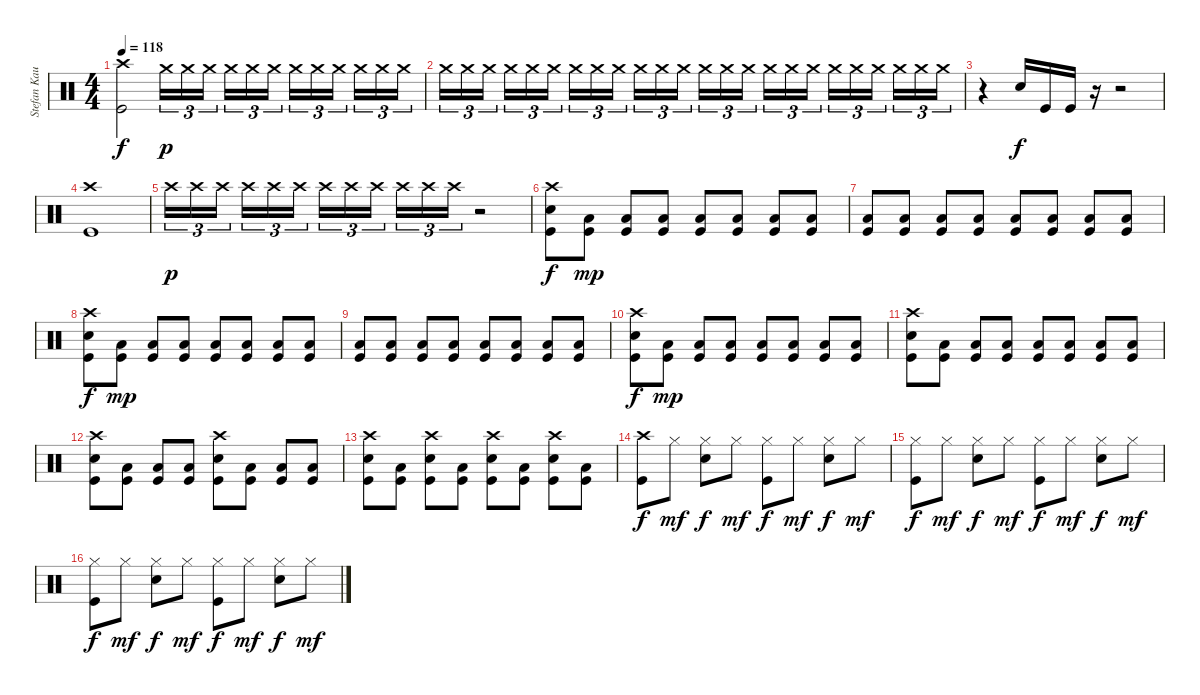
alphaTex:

\track ("Stefan Kaufmann" "Stefan Kau") {instrument percussion}
\staff {score}
\articulation defaults
\ts (4 4)
\tempo 118
\clef neutral
\ks c
("Crash high (hit)" "Kick (hit)").2{dy f} "Crash medium (hit)".16{tu (3 2) dy p} "Crash medium (hit)".16{tu (3 2)} "Crash medium (hit)".16{tu (3 2)} "Crash medium (hit)".16{tu (3 2)} "Crash medium (hit)".16{tu (3 2)} "Crash medium (hit)".16{tu (3 2)} "Crash medium (hit)".16{tu (3 2)} "Crash medium (hit)".16{tu (3 2)} "Crash medium (hit)".16{tu (3 2)} "Crash medium (hit)".16{tu (3 2)} "Crash medium (hit)".16{tu (3 2)} "Crash medium (hit)".16{tu (3 2)} |
"Crash medium (hit)".16{tu (3 2)} "Crash medium (hit)".16{tu (3 2)} "Crash medium (hit)".16{tu (3 2)} "Crash medium (hit)".16{tu (3 2)} "Crash medium (hit)".16{tu (3 2)} "Crash medium (hit)".16{tu (3 2)} "Crash medium (hit)".16{tu (3 2)} "Crash medium (hit)".16{tu (3 2)} "Crash medium (hit)".16{tu (3 2)} "Crash medium (hit)".16{tu (3 2)} "Crash medium (hit)".16{tu (3 2)} "Crash medium (hit)".16{tu (3 2)} "Crash medium (hit)".16{tu (3 2)} "Crash medium (hit)".16{tu (3 2)} "Crash medium (hit)".16{tu (3 2)} "Crash medium (hit)".16{tu (3 2)} "Crash medium (hit)".16{tu (3 2)} "Crash medium (hit)".16{tu (3 2)} "Crash medium (hit)".16{tu (3 2)} "Crash medium (hit)".16{tu (3 2)} "Crash medium (hit)".16{tu (3 2)} "Crash medium (hit)".16{tu (3 2)} "Crash medium (hit)".16{tu (3 2)} "Crash medium (hit)".16{tu (3 2)} |
r.4 "Snare (hit) 2".16{dy f} "Kick (hit)".16 "Kick (hit)".16 r.16 r.2 |
("Crash high (hit)" "Kick (hit)").1 |
"Crash high (hit)".16{tu (3 2) dy p} "Crash high (hit)".16{tu (3 2)} "Crash high (hit)".16{tu (3 2)} "Crash high (hit)".16{tu (3 2)} "Crash high (hit)".16{tu (3 2)} "Crash high (hit)".16{tu (3 2)} "Crash high (hit)".16{tu (3 2)} "Crash high (hit)".16{tu (3 2)} "Crash high (hit)".16{tu (3 2)} "Crash high (hit)".16{tu (3 2)} "Crash high (hit)".16{tu (3 2)} "Crash high (hit)".16{tu (3 2)} r.2 |
("Crash high (hit)" "Snare (hit) 2" "Kick (hit)").8{dy f} ("Low Floor Tom (hit)" "Kick (hit)").8{dy mp} ("Low Floor Tom (hit)" "Kick (hit)").8 ("Low Floor Tom (hit)" "Kick (hit)").8 ("Low Floor Tom (hit)" "Kick (hit)").8 ("Low Floor Tom (hit)" "Kick (hit)").8 ("Low Floor Tom (hit)" "Kick (hit)").8 ("Low Floor Tom (hit)" "Kick (hit)").8 |
("Low Floor Tom (hit)" "Kick (hit)").8 ("Low Floor Tom (hit)" "Kick (hit)").8 ("Low Floor Tom (hit)" "Kick (hit)").8 ("Low Floor Tom (hit)" "Kick (hit)").8 ("Low Floor Tom (hit)" "Kick (hit)").8 ("Low Floor Tom (hit)" "Kick (hit)").8 ("Low Floor Tom (hit)" "Kick (hit)").8 ("Low Floor Tom (hit)" "Kick (hit)").8 |
("Crash high (hit)" "Snare (hit) 2" "Kick (hit)").8{dy f} ("Low Floor Tom (hit)" "Kick (hit)").8{dy mp} ("Low Floor Tom (hit)" "Kick (hit)").8 ("Low Floor Tom (hit)" "Kick (hit)").8 ("Low Floor Tom (hit)" "Kick (hit)").8 ("Low Floor Tom (hit)" "Kick (hit)").8 ("Low Floor Tom (hit)" "Kick (hit)").8 ("Low Floor Tom (hit)" "Kick (hit)").8 |
("Low Floor Tom (hit)" "Kick (hit)").8 ("Low Floor Tom (hit)" "Kick (hit)").8 ("Low Floor Tom (hit)" "Kick (hit)").8 ("Low Floor Tom (hit)" "Kick (hit)").8 ("Low Floor Tom (hit)" "Kick (hit)").8 ("Low Floor Tom (hit)" "Kick (hit)").8 ("Low Floor Tom (hit)" "Kick (hit)").8 ("Low Floor Tom (hit)" "Kick (hit)").8 |
("Crash high (hit)" "Snare (hit) 2" "Kick (hit)").8{dy f} ("Low Floor Tom (hit)" "Kick (hit)").8{dy mp} ("Low Floor Tom (hit)" "Kick (hit)").8 ("Low Floor Tom (hit)" "Kick (hit)").8 ("Low Floor Tom (hit)" "Kick (hit)").8 ("Low Floor Tom (hit)" "Kick (hit)").8 ("Low Floor Tom (hit)" "Kick (hit)").8 ("Low Floor Tom (hit)" "Kick (hit)").8 |
("Crash high (hit)" "Snare (hit) 2" "Kick (hit)").8 ("Low Floor Tom (hit)" "Kick (hit)").8 ("Low Floor Tom (hit)" "Kick (hit)").8 ("Low Floor Tom (hit)" "Kick (hit)").8 ("Low Floor Tom (hit)" "Kick (hit)").8 ("Low Floor Tom (hit)" "Kick (hit)").8 ("Low Floor Tom (hit)" "Kick (hit)").8 ("Low Floor Tom (hit)" "Kick (hit)").8 |
("Crash high (hit)" "Snare (hit) 2" "Kick (hit)").8 ("Low Floor Tom (hit)" "Kick (hit)").8 ("Low Floor Tom (hit)" "Kick (hit)").8 ("Low Floor Tom (hit)" "Kick (hit)").8 ("Crash high (hit)" "Snare (hit) 2" "Kick (hit)").8 ("Low Floor Tom (hit)" "Kick (hit)").8 ("Low Floor Tom (hit)" "Kick (hit)").8 ("Low Floor Tom (hit)" "Kick (hit)").8 |
("Crash high (hit)" "Snare (hit) 2" "Kick (hit)").8 ("Low Floor Tom (hit)" "Kick (hit)").8 ("Crash high (hit)" "Snare (hit) 2" "Kick (hit)").8 ("Low Floor Tom (hit)" "Kick (hit)").8 ("Crash high (hit)" "Snare (hit) 2" "Kick (hit)").8 ("Low Floor Tom (hit)" "Kick (hit)").8 ("Crash high (hit)" "Snare (hit) 2" "Kick (hit)").8 ("Low Floor Tom (hit)" "Kick (hit)").8 |
("Crash high (hit)" "Kick (hit)").8{dy f} "Hi-Hat (closed)".8{dy mf} ("Hi-Hat (closed)" "Snare (hit) 2").8{dy f} "Hi-Hat (closed)".8{dy mf} ("Hi-Hat (closed)" "Kick (hit)").8{dy f} "Hi-Hat (closed)".8{dy mf} ("Hi-Hat (closed)" "Snare (hit) 2").8{dy f} "Hi-Hat (closed)".8{dy mf} |
("Hi-Hat (closed)" "Kick (hit)").8{dy f} "Hi-Hat (closed)".8{dy mf} ("Hi-Hat (closed)" "Snare (hit) 2").8{dy f} "Hi-Hat (closed)".8{dy mf} ("Hi-Hat (closed)" "Kick (hit)").8{dy f} "Hi-Hat (closed)".8{dy mf} ("Hi-Hat (closed)" "Snare (hit) 2").8{dy f} "Hi-Hat (closed)".8{dy mf} |
("Hi-Hat (closed)" "Kick (hit)").8{dy f} "Hi-Hat (closed)".8{dy mf} ("Hi-Hat (closed)" "Snare (hit) 2").8{dy f} "Hi-Hat (closed)".8{dy mf} ("Hi-Hat (closed)" "Kick (hit)").8{dy f} "Hi-Hat (closed)".8{dy mf} ("Hi-Hat (closed)" "Snare (hit) 2").8{dy f} "Hi-Hat (closed)".8{dy mf}
